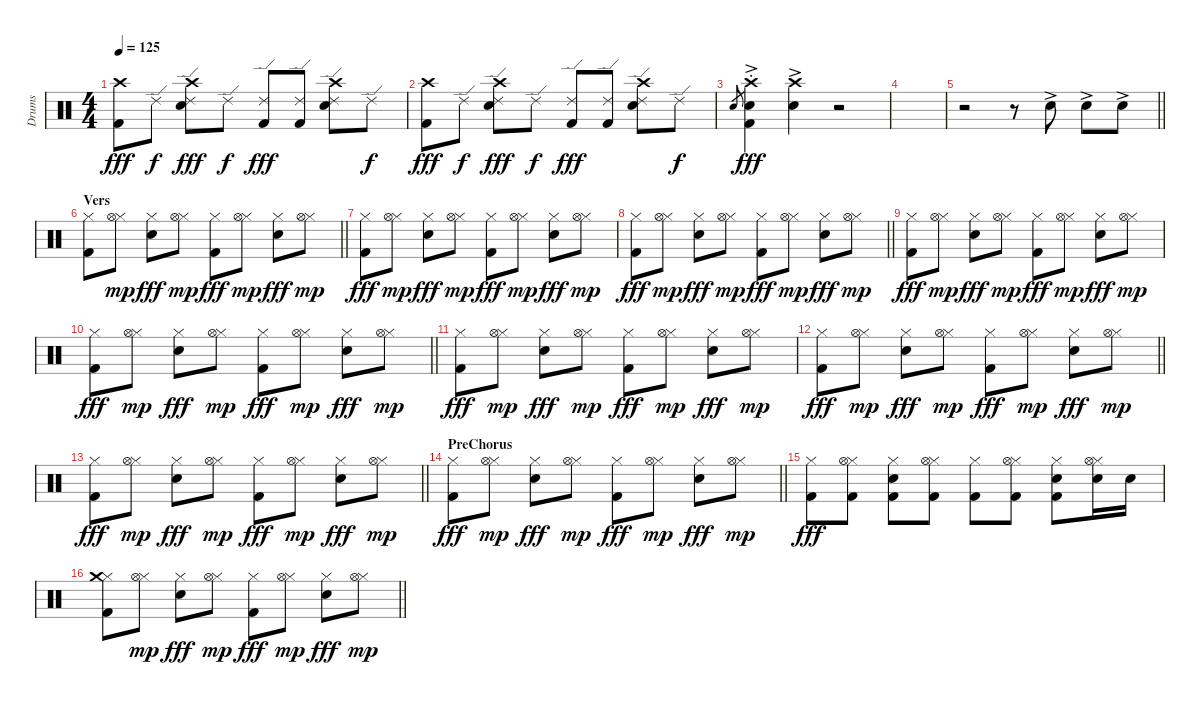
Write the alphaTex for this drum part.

\track ("Drums" "Drums") {instrument percussion}
\staff {score}
\articulation defaults
\ts (4 4)
\tempo 125
\clef neutral
\ks c
("Crash high (hit)" "Kick (hit) 2").8{dy fff} "Ride (edge) 2".8{dy f} ("Ride (edge) 2" "Crash high (hit)" "Electric Snare (hit)").8{dy fff} "Ride (edge) 2".8{dy f} ("Ride (edge) 2" "Kick (hit) 2").8{dy fff} ("Ride (edge) 2" "Kick (hit) 2").8 ("Ride (edge) 2" "Crash high (hit)" "Electric Snare (hit)").8 "Ride (edge) 2".8{dy f} |
("Crash high (hit)" "Kick (hit) 2").8{dy fff} "Ride (edge) 2".8{dy f} ("Ride (edge) 2" "Crash high (hit)" "Electric Snare (hit)").8{dy fff} "Ride (edge) 2".8{dy f} ("Ride (edge) 2" "Kick (hit) 2").8{dy fff} ("Ride (edge) 2" "Kick (hit) 2").8 ("Ride (edge) 2" "Crash high (hit)" "Electric Snare (hit)").8 "Ride (edge) 2".8{dy f} |
"Electric Snare (hit)".8{gr} ("Crash high (hit)"{ac st} "Electric Snare (hit)" "Kick (hit) 2"{ac st}).4{dy fff} ("Crash high (hit)"{ac} "Electric Snare (hit)"{ac}).4 r.2 |
|
\barLineRight lightlight
r.2 r.8 "Electric Snare (hit)"{ac}.8 "Electric Snare (hit)"{ac}.8 "Electric Snare (hit)"{ac}.8 |
\section ("" "Vers")
\barLineRight lightlight
("Hi-Hat (closed)" "Kick (hit) 2").8 ("Hi-Hat (closed)" "Hi-Hat (open)").8{dy mp} ("Hi-Hat (closed)" "Electric Snare (hit)").8{dy fff} ("Hi-Hat (closed)" "Hi-Hat (open)").8{dy mp} ("Hi-Hat (closed)" "Kick (hit) 2").8{dy fff} ("Hi-Hat (closed)" "Hi-Hat (open)").8{dy mp} ("Hi-Hat (closed)" "Electric Snare (hit)").8{dy fff} ("Hi-Hat (closed)" "Hi-Hat (open)").8{dy mp} |
\section ("" "")
("Hi-Hat (closed)" "Kick (hit) 2").8{dy fff} ("Hi-Hat (closed)" "Hi-Hat (open)").8{dy mp} ("Hi-Hat (closed)" "Electric Snare (hit)").8{dy fff} ("Hi-Hat (closed)" "Hi-Hat (open)").8{dy mp} ("Hi-Hat (closed)" "Kick (hit) 2").8{dy fff} ("Hi-Hat (closed)" "Hi-Hat (open)").8{dy mp} ("Hi-Hat (closed)" "Electric Snare (hit)").8{dy fff} ("Hi-Hat (closed)" "Hi-Hat (open)").8{dy mp} |
\barLineRight lightlight
("Hi-Hat (closed)" "Kick (hit) 2").8{dy fff} ("Hi-Hat (closed)" "Hi-Hat (open)").8{dy mp} ("Hi-Hat (closed)" "Electric Snare (hit)").8{dy fff} ("Hi-Hat (closed)" "Hi-Hat (open)").8{dy mp} ("Hi-Hat (closed)" "Kick (hit) 2").8{dy fff} ("Hi-Hat (closed)" "Hi-Hat (open)").8{dy mp} ("Hi-Hat (closed)" "Electric Snare (hit)").8{dy fff} ("Hi-Hat (closed)" "Hi-Hat (open)").8{dy mp} |
("Hi-Hat (closed)" "Kick (hit) 2").8{dy fff} ("Hi-Hat (closed)" "Hi-Hat (open)").8{dy mp} ("Hi-Hat (closed)" "Electric Snare (hit)").8{dy fff} ("Hi-Hat (closed)" "Hi-Hat (open)").8{dy mp} ("Hi-Hat (closed)" "Kick (hit) 2").8{dy fff} ("Hi-Hat (closed)" "Hi-Hat (open)").8{dy mp} ("Hi-Hat (closed)" "Electric Snare (hit)").8{dy fff} ("Hi-Hat (closed)" "Hi-Hat (open)").8{dy mp} |
\barLineRight lightlight
("Hi-Hat (closed)" "Kick (hit) 2").8{dy fff} ("Hi-Hat (closed)" "Hi-Hat (open)").8{dy mp} ("Hi-Hat (closed)" "Electric Snare (hit)").8{dy fff} ("Hi-Hat (closed)" "Hi-Hat (open)").8{dy mp} ("Hi-Hat (closed)" "Kick (hit) 2").8{dy fff} ("Hi-Hat (closed)" "Hi-Hat (open)").8{dy mp} ("Hi-Hat (closed)" "Electric Snare (hit)").8{dy fff} ("Hi-Hat (closed)" "Hi-Hat (open)").8{dy mp} |
("Hi-Hat (closed)" "Kick (hit) 2").8{dy fff} ("Hi-Hat (closed)" "Hi-Hat (open)").8{dy mp} ("Hi-Hat (closed)" "Electric Snare (hit)").8{dy fff} ("Hi-Hat (closed)" "Hi-Hat (open)").8{dy mp} ("Hi-Hat (closed)" "Kick (hit) 2").8{dy fff} ("Hi-Hat (closed)" "Hi-Hat (open)").8{dy mp} ("Hi-Hat (closed)" "Electric Snare (hit)").8{dy fff} ("Hi-Hat (closed)" "Hi-Hat (open)").8{dy mp} |
\barLineRight lightlight
("Hi-Hat (closed)" "Kick (hit) 2").8{dy fff} ("Hi-Hat (closed)" "Hi-Hat (open)").8{dy mp} ("Hi-Hat (closed)" "Electric Snare (hit)").8{dy fff} ("Hi-Hat (closed)" "Hi-Hat (open)").8{dy mp} ("Hi-Hat (closed)" "Kick (hit) 2").8{dy fff} ("Hi-Hat (closed)" "Hi-Hat (open)").8{dy mp} ("Hi-Hat (closed)" "Electric Snare (hit)").8{dy fff} ("Hi-Hat (closed)" "Hi-Hat (open)").8{dy mp} |
\barLineRight lightlight
("Hi-Hat (closed)" "Kick (hit) 2").8{dy fff} ("Hi-Hat (closed)" "Hi-Hat (open)").8{dy mp} ("Hi-Hat (closed)" "Electric Snare (hit)").8{dy fff} ("Hi-Hat (closed)" "Hi-Hat (open)").8{dy mp} ("Hi-Hat (closed)" "Kick (hit) 2").8{dy fff} ("Hi-Hat (closed)" "Hi-Hat (open)").8{dy mp} ("Hi-Hat (closed)" "Electric Snare (hit)").8{dy fff} ("Hi-Hat (closed)" "Hi-Hat (open)").8{dy mp} |
\section ("" "PreChorus")
\barLineRight lightlight
("Hi-Hat (closed)" "Kick (hit) 2").8{dy fff} ("Hi-Hat (closed)" "Hi-Hat (open)").8{dy mp} ("Hi-Hat (closed)" "Electric Snare (hit)").8{dy fff} ("Hi-Hat (closed)" "Hi-Hat (open)").8{dy mp} ("Hi-Hat (closed)" "Kick (hit) 2").8{dy fff} ("Hi-Hat (closed)" "Hi-Hat (open)").8{dy mp} ("Hi-Hat (closed)" "Electric Snare (hit)").8{dy fff} ("Hi-Hat (closed)" "Hi-Hat (open)").8{dy mp} |
\section ("" "")
("Hi-Hat (closed)" "Kick (hit) 2").8{dy fff} ("Hi-Hat (closed)" "Hi-Hat (open)" "Kick (hit) 2").8 ("Hi-Hat (closed)" "Kick (hit) 2" "Electric Snare (hit)").8 ("Hi-Hat (closed)" "Hi-Hat (open)" "Kick (hit) 2").8 ("Hi-Hat (closed)" "Kick (hit) 2").8 ("Hi-Hat (closed)" "Hi-Hat (open)" "Kick (hit) 2").8 ("Hi-Hat (closed)" "Electric Snare (hit)" "Kick (hit) 2").8 ("Hi-Hat (closed)" "Hi-Hat (open)" "Electric Snare (hit)").16 "Electric Snare (hit)".16 |
\barLineRight lightlight
("Hi-Hat (closed)" "Crash medium (hit)" "Kick (hit) 2").8 ("Hi-Hat (closed)" "Hi-Hat (open)").8{dy mp} ("Hi-Hat (closed)" "Electric Snare (hit)").8{dy fff} ("Hi-Hat (closed)" "Hi-Hat (open)").8{dy mp} ("Hi-Hat (closed)" "Kick (hit) 2").8{dy fff} ("Hi-Hat (closed)" "Hi-Hat (open)").8{dy mp} ("Hi-Hat (closed)" "Electric Snare (hit)").8{dy fff} ("Hi-Hat (closed)" "Hi-Hat (open)").8{dy mp}
